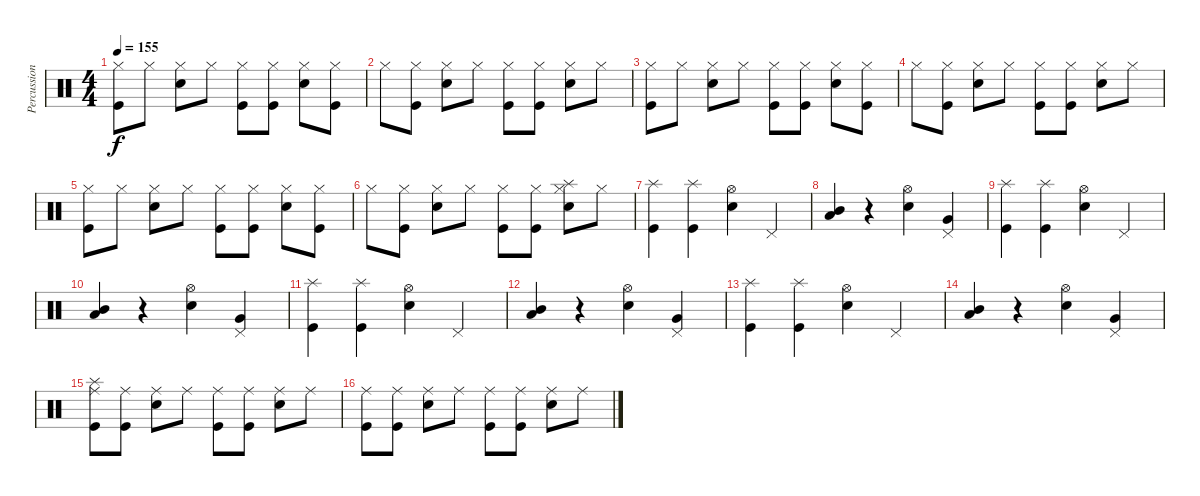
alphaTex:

\track ("Percussion" "Percussion") {instrument percussion}
\staff {score}
\articulation defaults
\ts (4 4)
\tempo 155
\clef neutral
\ks c
("Hi-Hat (closed)" "Kick (hit)").8{dy f} "Hi-Hat (closed)".8 ("Hi-Hat (closed)" "Electric Snare (hit)").8 "Hi-Hat (closed)".8 ("Hi-Hat (closed)" "Kick (hit)").8 ("Hi-Hat (closed)" "Kick (hit)").8 ("Hi-Hat (closed)" "Electric Snare (hit)").8 ("Hi-Hat (closed)" "Kick (hit)").8 |
"Hi-Hat (closed)".8 ("Hi-Hat (closed)" "Kick (hit)").8 ("Hi-Hat (closed)" "Electric Snare (hit)").8 "Hi-Hat (closed)".8 ("Hi-Hat (closed)" "Kick (hit)").8 ("Hi-Hat (closed)" "Kick (hit)").8 ("Hi-Hat (closed)" "Electric Snare (hit)").8 "Hi-Hat (closed)".8 |
("Hi-Hat (closed)" "Kick (hit)").8 "Hi-Hat (closed)".8 ("Hi-Hat (closed)" "Electric Snare (hit)").8 "Hi-Hat (closed)".8 ("Hi-Hat (closed)" "Kick (hit)").8 ("Hi-Hat (closed)" "Kick (hit)").8 ("Hi-Hat (closed)" "Electric Snare (hit)").8 ("Hi-Hat (closed)" "Kick (hit)").8 |
"Hi-Hat (closed)".8 ("Hi-Hat (closed)" "Kick (hit)").8 ("Hi-Hat (closed)" "Electric Snare (hit)").8 "Hi-Hat (closed)".8 ("Hi-Hat (closed)" "Kick (hit)").8 ("Hi-Hat (closed)" "Kick (hit)").8 ("Hi-Hat (closed)" "Electric Snare (hit)").8 "Hi-Hat (closed)".8 |
("Hi-Hat (closed)" "Kick (hit)").8 "Hi-Hat (closed)".8 ("Hi-Hat (closed)" "Electric Snare (hit)").8 "Hi-Hat (closed)".8 ("Hi-Hat (closed)" "Kick (hit)").8 ("Hi-Hat (closed)" "Kick (hit)").8 ("Hi-Hat (closed)" "Electric Snare (hit)").8 ("Hi-Hat (closed)" "Kick (hit)").8 |
"Hi-Hat (closed)".8 ("Hi-Hat (closed)" "Kick (hit)").8 ("Hi-Hat (closed)" "Electric Snare (hit)").8 "Hi-Hat (closed)".8 ("Hi-Hat (closed)" "Kick (hit)").8 ("Hi-Hat (closed)" "Kick (hit)").8 ("Splash (hit)" "Hi-Hat (closed)" "Electric Snare (hit)").8 "Hi-Hat (closed)".8 |
("Splash (hit)" "Kick (hit)").4 ("Splash (hit)" "Kick (hit)").4 ("Hi-Hat (open)" "Electric Snare (hit)").4 "Pedal Hi-Hat (hit)".4 |
("Low Tom (hit)" "Mid Tom (hit)").4 r.4 ("Hi-Hat (open)" "Electric Snare (hit)").4 ("Pedal Hi-Hat (hit)" "Very Low Tom (hit)").4 |
("Splash (hit)" "Kick (hit)").4 ("Splash (hit)" "Kick (hit)").4 ("Hi-Hat (open)" "Electric Snare (hit)").4 "Pedal Hi-Hat (hit)".4 |
("Low Tom (hit)" "Mid Tom (hit)").4 r.4 ("Hi-Hat (open)" "Electric Snare (hit)").4 ("Pedal Hi-Hat (hit)" "Very Low Tom (hit)").4 |
("Splash (hit)" "Kick (hit)").4 ("Splash (hit)" "Kick (hit)").4 ("Hi-Hat (open)" "Electric Snare (hit)").4 "Pedal Hi-Hat (hit)".4 |
("Low Tom (hit)" "Mid Tom (hit)").4 r.4 ("Hi-Hat (open)" "Electric Snare (hit)").4 ("Pedal Hi-Hat (hit)" "Very Low Tom (hit)").4 |
("Splash (hit)" "Kick (hit)").4 ("Splash (hit)" "Kick (hit)").4 ("Hi-Hat (open)" "Electric Snare (hit)").4 "Pedal Hi-Hat (hit)".4 |
("Low Tom (hit)" "Mid Tom (hit)").4 r.4 ("Hi-Hat (open)" "Electric Snare (hit)").4 ("Pedal Hi-Hat (hit)" "Very Low Tom (hit)").4 |
("Splash (hit)" "Ride (middle)" "Kick (hit)").8 ("Ride (middle)" "Kick (hit)").8 ("Ride (middle)" "Electric Snare (hit)").8 "Ride (middle)".8 ("Ride (middle)" "Kick (hit)").8 ("Ride (middle)" "Kick (hit)").8 ("Ride (middle)" "Electric Snare (hit)").8 "Ride (middle)".8 |
("Ride (middle)" "Kick (hit)").8 ("Ride (middle)" "Kick (hit)").8 ("Ride (middle)" "Electric Snare (hit)").8 "Ride (middle)".8 ("Ride (middle)" "Kick (hit)").8 ("Ride (middle)" "Kick (hit)").8 ("Ride (middle)" "Electric Snare (hit)").8 "Ride (middle)".8
